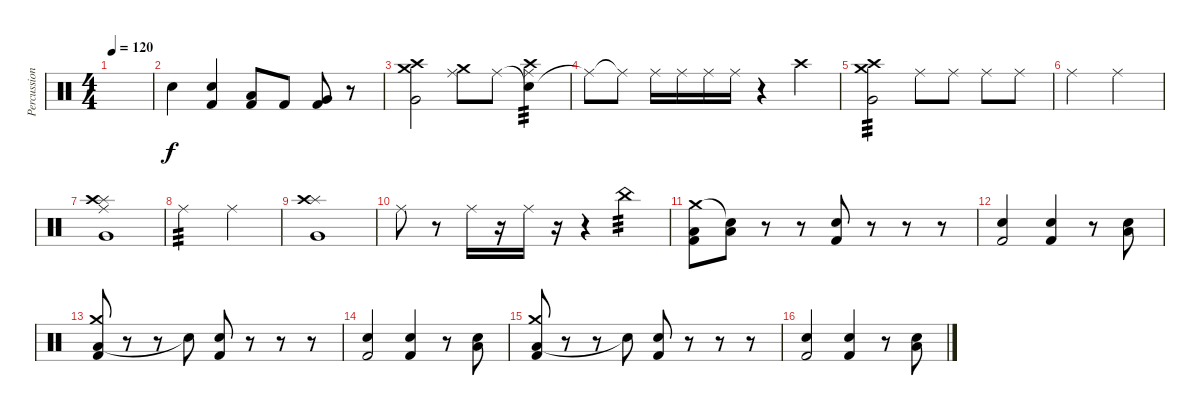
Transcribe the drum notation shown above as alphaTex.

\track ("Percussion" "Percussion") {instrument percussion}
\staff {score}
\articulation defaults
\ts (4 4)
\tempo 120
\clef neutral
\ks c
|
"Snare (hit) 2".4{dy f} ("Snare (hit) 2" "Kick (hit) 2").4 ("Low Floor Tom (hit)" "Kick (hit) 2").8 "Kick (hit) 2".8 ("Very Low Tom (hit)" "Kick (hit) 2").8 r.8 |
("Crash medium (hit)" "Crash high (hit)" "Very Low Tom (hit)").2 ("Crash medium (hit)" "Ride (middle)").8 "Ride (middle)".8 ("Snare (hit)"{t} "Ride (middle)" "Crash high (hit)").4{tp 3} |
"Ride (middle)"{t}.8 "Ride (middle)"{t}.8 "Ride (middle)".16 "Ride (middle)".16 "Ride (middle)".16 "Ride (middle)".16 r.4 "Crash high (hit)".4 |
("Crash medium (hit)" "Very Low Tom (hit)" "Crash high (hit)").2{tp 3} "Ride (middle)".8 "Ride (middle)".8 "Ride (middle)".8 "Ride (middle)".8 |
"Ride (middle)".2 "Ride (middle)".2 |
("Splash (hit)" "Very Low Tom (hit)" "Crash high (hit)" "Ride (middle)").1 |
"Ride (middle)".2{tp 3} "Ride (middle)".2 |
("Splash (hit)" "Very Low Tom (hit)" "Crash high (hit)").1 |
"Ride (middle)".8 r.8 "Ride (middle)".16 r.16 "Ride (middle)".16 r.16 r.4 "China (hit)".4{tp 3} |
("Low Floor Tom (hit)" "Crash medium (hit)" "Kick (hit) 2").8 ("Low Tom (hit)" "Snare (hit)"{t}).8 r.8 r.8 ("Metronome (bell)" "Kick (hit) 2").8 r.8 r.8 r.8 |
("Metronome (bell)" "Kick (hit) 2").2 ("Metronome (bell)" "Kick (hit) 2").4 r.8 ("Snare (hit) 2" "Low Floor Tom (hit)").8 |
("Low Tom (hit)" "Crash medium (hit)" "Kick (hit) 2").8 r.8 r.8 "Snare (hit)"{t}.8 ("Metronome (bell)" "Kick (hit) 2").8 r.8 r.8 r.8 |
("Metronome (bell)" "Kick (hit) 2").2 ("Metronome (bell)" "Kick (hit) 2").4 r.8 ("Snare (hit) 2" "Low Floor Tom (hit)").8 |
("Low Tom (hit)" "Crash medium (hit)" "Kick (hit) 2").8 r.8 r.8 "Snare (hit)"{t}.8 ("Metronome (bell)" "Kick (hit) 2").8 r.8 r.8 r.8 |
("Metronome (bell)" "Kick (hit) 2").2 ("Metronome (bell)" "Kick (hit) 2").4 r.8 ("Snare (hit) 2" "Low Tom (hit)").8
